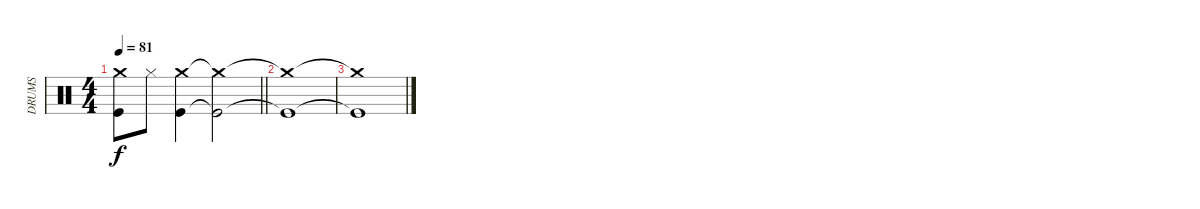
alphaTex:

\track ("DRUMS" "DRUMS") {instrument percussion}
\staff {score}
\articulation defaults
\ts (4 4)
\tempo 81
\clef neutral
\barLineRight lightlight
\ks c
("Crash medium (hit)" "Kick (hit)").8{dy f} "Hi-Hat (closed)".8 ("Crash medium (hit)" "Kick (hit)").4 ("Crash medium (hit)"{t} "Kick (hit)"{t}).2 |
("Crash medium (hit)"{t} "Kick (hit)"{t}).1 |
("Crash medium (hit)"{t} "Kick (hit)"{t}).1
